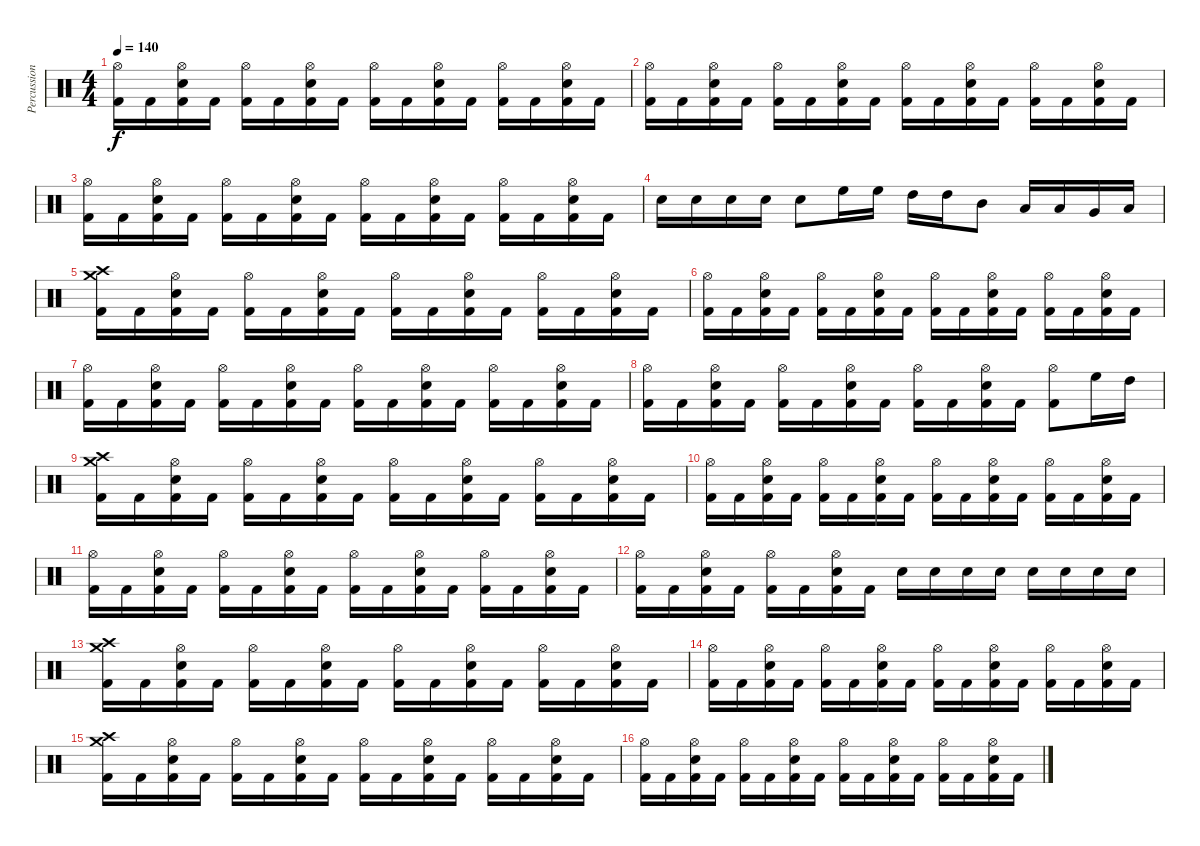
\track ("Percussion" "Percussion") {instrument percussion}
\staff {score}
\articulation defaults
\ts (4 4)
\tempo 140
\clef neutral
\ks c
("Kick (hit) 2" "Hi-Hat (open)").16{dy f} "Kick (hit) 2".16 ("Kick (hit) 2" "Electric Snare (hit)" "Hi-Hat (open)").16 "Kick (hit) 2".16 ("Kick (hit) 2" "Hi-Hat (open)").16 "Kick (hit) 2".16 ("Kick (hit) 2" "Electric Snare (hit)" "Hi-Hat (open)").16 "Kick (hit) 2".16 ("Kick (hit) 2" "Hi-Hat (open)").16 "Kick (hit) 2".16 ("Kick (hit) 2" "Electric Snare (hit)" "Hi-Hat (open)").16 "Kick (hit) 2".16 ("Kick (hit) 2" "Hi-Hat (open)").16 "Kick (hit) 2".16 ("Kick (hit) 2" "Electric Snare (hit)" "Hi-Hat (open)").16 "Kick (hit) 2".16 |
("Kick (hit) 2" "Hi-Hat (open)").16 "Kick (hit) 2".16 ("Kick (hit) 2" "Electric Snare (hit)" "Hi-Hat (open)").16 "Kick (hit) 2".16 ("Kick (hit) 2" "Hi-Hat (open)").16 "Kick (hit) 2".16 ("Kick (hit) 2" "Electric Snare (hit)" "Hi-Hat (open)").16 "Kick (hit) 2".16 ("Kick (hit) 2" "Hi-Hat (open)").16 "Kick (hit) 2".16 ("Kick (hit) 2" "Electric Snare (hit)" "Hi-Hat (open)").16 "Kick (hit) 2".16 ("Kick (hit) 2" "Hi-Hat (open)").16 "Kick (hit) 2".16 ("Kick (hit) 2" "Electric Snare (hit)" "Hi-Hat (open)").16 "Kick (hit) 2".16 |
("Kick (hit) 2" "Hi-Hat (open)").16 "Kick (hit) 2".16 ("Kick (hit) 2" "Electric Snare (hit)" "Hi-Hat (open)").16 "Kick (hit) 2".16 ("Kick (hit) 2" "Hi-Hat (open)").16 "Kick (hit) 2".16 ("Kick (hit) 2" "Electric Snare (hit)" "Hi-Hat (open)").16 "Kick (hit) 2".16 ("Kick (hit) 2" "Hi-Hat (open)").16 "Kick (hit) 2".16 ("Kick (hit) 2" "Electric Snare (hit)" "Hi-Hat (open)").16 "Kick (hit) 2".16 ("Kick (hit) 2" "Hi-Hat (open)").16 "Kick (hit) 2".16 ("Kick (hit) 2" "Electric Snare (hit)" "Hi-Hat (open)").16 "Kick (hit) 2".16 |
"Electric Snare (hit)".16 "Electric Snare (hit)".16 "Electric Snare (hit)".16 "Electric Snare (hit)".16 "Electric Snare (hit)".8 "High Floor Tom (hit)".16 "High Floor Tom (hit)".16 "High Tom (hit)".16 "High Tom (hit)".16 "Mid Tom (hit)".8 "Low Tom (hit)".16 "Low Tom (hit)".16 "Very Low Tom (hit)".16 "Low Floor Tom (hit)".16 |
("Kick (hit) 2" "Crash high (hit)" "Crash medium (hit)").16 "Kick (hit) 2".16 ("Kick (hit) 2" "Electric Snare (hit)" "Hi-Hat (open)").16 "Kick (hit) 2".16 ("Kick (hit) 2" "Hi-Hat (open)").16 "Kick (hit) 2".16 ("Kick (hit) 2" "Electric Snare (hit)" "Hi-Hat (open)").16 "Kick (hit) 2".16 ("Kick (hit) 2" "Hi-Hat (open)").16 "Kick (hit) 2".16 ("Kick (hit) 2" "Electric Snare (hit)" "Hi-Hat (open)").16 "Kick (hit) 2".16 ("Kick (hit) 2" "Hi-Hat (open)").16 "Kick (hit) 2".16 ("Kick (hit) 2" "Electric Snare (hit)" "Hi-Hat (open)").16 "Kick (hit) 2".16 |
("Kick (hit) 2" "Hi-Hat (open)").16 "Kick (hit) 2".16 ("Kick (hit) 2" "Electric Snare (hit)" "Hi-Hat (open)").16 "Kick (hit) 2".16 ("Kick (hit) 2" "Hi-Hat (open)").16 "Kick (hit) 2".16 ("Kick (hit) 2" "Electric Snare (hit)" "Hi-Hat (open)").16 "Kick (hit) 2".16 ("Kick (hit) 2" "Hi-Hat (open)").16 "Kick (hit) 2".16 ("Kick (hit) 2" "Electric Snare (hit)" "Hi-Hat (open)").16 "Kick (hit) 2".16 ("Kick (hit) 2" "Hi-Hat (open)").16 "Kick (hit) 2".16 ("Kick (hit) 2" "Electric Snare (hit)" "Hi-Hat (open)").16 "Kick (hit) 2".16 |
("Kick (hit) 2" "Hi-Hat (open)").16 "Kick (hit) 2".16 ("Kick (hit) 2" "Electric Snare (hit)" "Hi-Hat (open)").16 "Kick (hit) 2".16 ("Kick (hit) 2" "Hi-Hat (open)").16 "Kick (hit) 2".16 ("Kick (hit) 2" "Electric Snare (hit)" "Hi-Hat (open)").16 "Kick (hit) 2".16 ("Kick (hit) 2" "Hi-Hat (open)").16 "Kick (hit) 2".16 ("Kick (hit) 2" "Electric Snare (hit)" "Hi-Hat (open)").16 "Kick (hit) 2".16 ("Kick (hit) 2" "Hi-Hat (open)").16 "Kick (hit) 2".16 ("Kick (hit) 2" "Electric Snare (hit)" "Hi-Hat (open)").16 "Kick (hit) 2".16 |
("Kick (hit) 2" "Hi-Hat (open)").16 "Kick (hit) 2".16 ("Kick (hit) 2" "Electric Snare (hit)" "Hi-Hat (open)").16 "Kick (hit) 2".16 ("Kick (hit) 2" "Hi-Hat (open)").16 "Kick (hit) 2".16 ("Kick (hit) 2" "Electric Snare (hit)" "Hi-Hat (open)").16 "Kick (hit) 2".16 ("Kick (hit) 2" "Hi-Hat (open)").16 "Kick (hit) 2".16 ("Kick (hit) 2" "Electric Snare (hit)" "Hi-Hat (open)").16 "Kick (hit) 2".16 ("Kick (hit) 2" "Hi-Hat (open)").8 "High Floor Tom (hit)".16 "High Tom (hit)".16 |
("Kick (hit) 2" "Crash high (hit)" "Crash medium (hit)").16 "Kick (hit) 2".16 ("Kick (hit) 2" "Electric Snare (hit)" "Hi-Hat (open)").16 "Kick (hit) 2".16 ("Kick (hit) 2" "Hi-Hat (open)").16 "Kick (hit) 2".16 ("Kick (hit) 2" "Electric Snare (hit)" "Hi-Hat (open)").16 "Kick (hit) 2".16 ("Kick (hit) 2" "Hi-Hat (open)").16 "Kick (hit) 2".16 ("Kick (hit) 2" "Electric Snare (hit)" "Hi-Hat (open)").16 "Kick (hit) 2".16 ("Kick (hit) 2" "Hi-Hat (open)").16 "Kick (hit) 2".16 ("Kick (hit) 2" "Electric Snare (hit)" "Hi-Hat (open)").16 "Kick (hit) 2".16 |
("Kick (hit) 2" "Hi-Hat (open)").16 "Kick (hit) 2".16 ("Kick (hit) 2" "Electric Snare (hit)" "Hi-Hat (open)").16 "Kick (hit) 2".16 ("Kick (hit) 2" "Hi-Hat (open)").16 "Kick (hit) 2".16 ("Kick (hit) 2" "Electric Snare (hit)" "Hi-Hat (open)").16 "Kick (hit) 2".16 ("Kick (hit) 2" "Hi-Hat (open)").16 "Kick (hit) 2".16 ("Kick (hit) 2" "Electric Snare (hit)" "Hi-Hat (open)").16 "Kick (hit) 2".16 ("Kick (hit) 2" "Hi-Hat (open)").16 "Kick (hit) 2".16 ("Kick (hit) 2" "Electric Snare (hit)" "Hi-Hat (open)").16 "Kick (hit) 2".16 |
("Kick (hit) 2" "Hi-Hat (open)").16 "Kick (hit) 2".16 ("Kick (hit) 2" "Electric Snare (hit)" "Hi-Hat (open)").16 "Kick (hit) 2".16 ("Kick (hit) 2" "Hi-Hat (open)").16 "Kick (hit) 2".16 ("Kick (hit) 2" "Electric Snare (hit)" "Hi-Hat (open)").16 "Kick (hit) 2".16 ("Kick (hit) 2" "Hi-Hat (open)").16 "Kick (hit) 2".16 ("Kick (hit) 2" "Electric Snare (hit)" "Hi-Hat (open)").16 "Kick (hit) 2".16 ("Kick (hit) 2" "Hi-Hat (open)").16 "Kick (hit) 2".16 ("Kick (hit) 2" "Electric Snare (hit)" "Hi-Hat (open)").16 "Kick (hit) 2".16 |
("Kick (hit) 2" "Hi-Hat (open)").16 "Kick (hit) 2".16 ("Kick (hit) 2" "Electric Snare (hit)" "Hi-Hat (open)").16 "Kick (hit) 2".16 ("Kick (hit) 2" "Hi-Hat (open)").16 "Kick (hit) 2".16 ("Kick (hit) 2" "Electric Snare (hit)" "Hi-Hat (open)").16 "Kick (hit) 2".16 "Electric Snare (hit)".16 "Electric Snare (hit)".16 "Electric Snare (hit)".16 "Electric Snare (hit)".16 "Electric Snare (hit)".16 "Electric Snare (hit)".16 "Electric Snare (hit)".16 "Electric Snare (hit)".16 |
("Kick (hit) 2" "Crash high (hit)" "Crash medium (hit)").16 "Kick (hit) 2".16 ("Kick (hit) 2" "Electric Snare (hit)" "Hi-Hat (open)").16 "Kick (hit) 2".16 ("Kick (hit) 2" "Hi-Hat (open)").16 "Kick (hit) 2".16 ("Kick (hit) 2" "Electric Snare (hit)" "Hi-Hat (open)").16 "Kick (hit) 2".16 ("Kick (hit) 2" "Hi-Hat (open)").16 "Kick (hit) 2".16 ("Kick (hit) 2" "Electric Snare (hit)" "Hi-Hat (open)").16 "Kick (hit) 2".16 ("Kick (hit) 2" "Hi-Hat (open)").16 "Kick (hit) 2".16 ("Kick (hit) 2" "Electric Snare (hit)" "Hi-Hat (open)").16 "Kick (hit) 2".16 |
("Kick (hit) 2" "Hi-Hat (open)").16 "Kick (hit) 2".16 ("Kick (hit) 2" "Electric Snare (hit)" "Hi-Hat (open)").16 "Kick (hit) 2".16 ("Kick (hit) 2" "Hi-Hat (open)").16 "Kick (hit) 2".16 ("Kick (hit) 2" "Electric Snare (hit)" "Hi-Hat (open)").16 "Kick (hit) 2".16 ("Kick (hit) 2" "Hi-Hat (open)").16 "Kick (hit) 2".16 ("Kick (hit) 2" "Electric Snare (hit)" "Hi-Hat (open)").16 "Kick (hit) 2".16 ("Kick (hit) 2" "Hi-Hat (open)").16 "Kick (hit) 2".16 ("Kick (hit) 2" "Electric Snare (hit)" "Hi-Hat (open)").16 "Kick (hit) 2".16 |
("Kick (hit) 2" "Crash high (hit)" "Crash medium (hit)").16 "Kick (hit) 2".16 ("Kick (hit) 2" "Electric Snare (hit)" "Hi-Hat (open)").16 "Kick (hit) 2".16 ("Kick (hit) 2" "Hi-Hat (open)").16 "Kick (hit) 2".16 ("Kick (hit) 2" "Electric Snare (hit)" "Hi-Hat (open)").16 "Kick (hit) 2".16 ("Kick (hit) 2" "Hi-Hat (open)").16 "Kick (hit) 2".16 ("Kick (hit) 2" "Electric Snare (hit)" "Hi-Hat (open)").16 "Kick (hit) 2".16 ("Kick (hit) 2" "Hi-Hat (open)").16 "Kick (hit) 2".16 ("Kick (hit) 2" "Electric Snare (hit)" "Hi-Hat (open)").16 "Kick (hit) 2".16 |
("Kick (hit) 2" "Hi-Hat (open)").16 "Kick (hit) 2".16 ("Kick (hit) 2" "Electric Snare (hit)" "Hi-Hat (open)").16 "Kick (hit) 2".16 ("Kick (hit) 2" "Hi-Hat (open)").16 "Kick (hit) 2".16 ("Kick (hit) 2" "Electric Snare (hit)" "Hi-Hat (open)").16 "Kick (hit) 2".16 ("Kick (hit) 2" "Hi-Hat (open)").16 "Kick (hit) 2".16 ("Kick (hit) 2" "Electric Snare (hit)" "Hi-Hat (open)").16 "Kick (hit) 2".16 ("Kick (hit) 2" "Hi-Hat (open)").16 "Kick (hit) 2".16 ("Kick (hit) 2" "Electric Snare (hit)" "Hi-Hat (open)").16 "Kick (hit) 2".16
